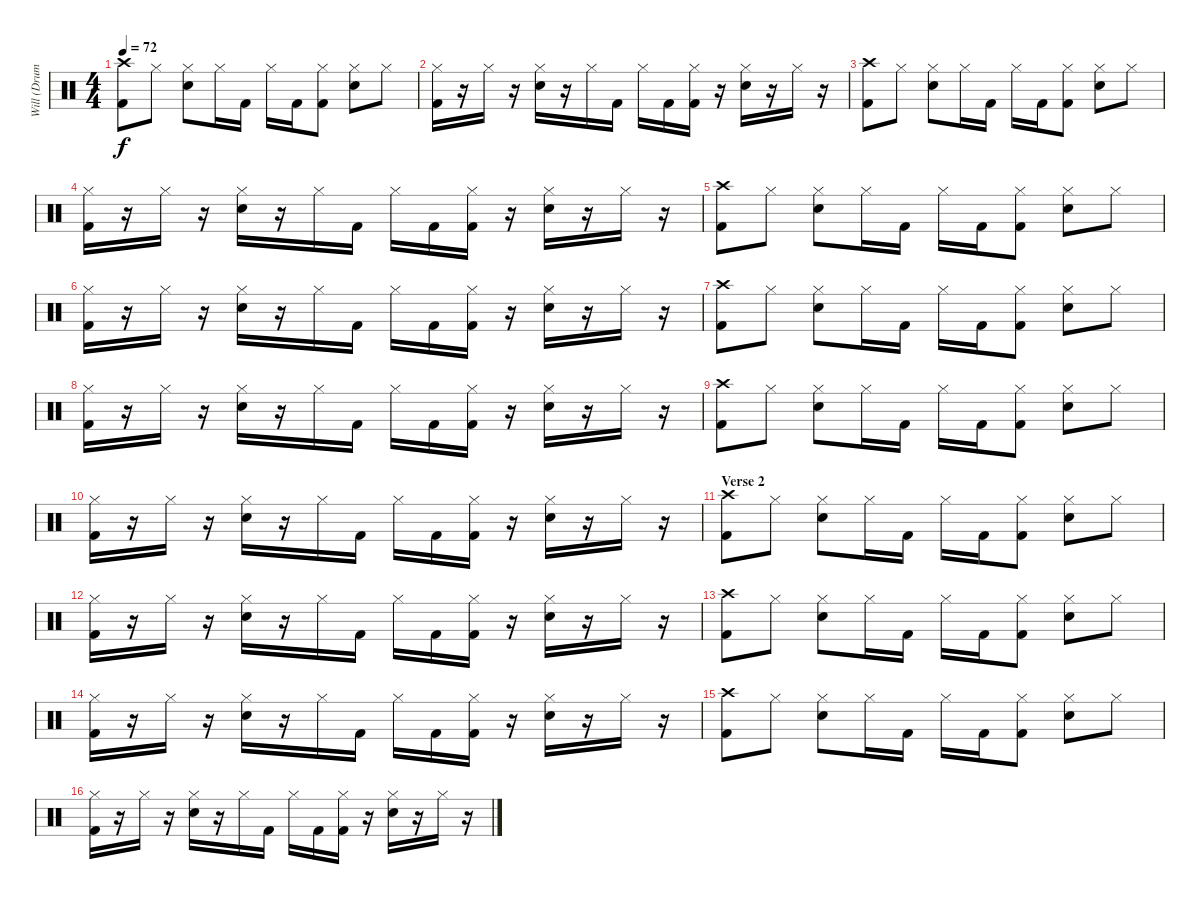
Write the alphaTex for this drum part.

\track ("Will (Drums)" "Will (Drum") {instrument percussion}
\staff {score}
\articulation defaults
\ts (4 4)
\tempo 72
\clef neutral
\ks c
("Crash high (hit)" "Kick (hit) 2").8{dy f} "Hi-Hat (closed)".8 ("Hi-Hat (closed)" "Snare (hit) 2").8 "Hi-Hat (closed)".16 "Kick (hit) 2".16 "Hi-Hat (closed)".16 "Kick (hit) 2".16 ("Hi-Hat (closed)" "Kick (hit) 2").8 ("Hi-Hat (closed)" "Snare (hit) 2").8 "Hi-Hat (closed)".8 |
("Hi-Hat (closed)" "Kick (hit) 2").16 r.16 "Hi-Hat (closed)".16 r.16 ("Hi-Hat (closed)" "Snare (hit) 2").16 r.16 "Hi-Hat (closed)".16 "Kick (hit) 2".16 "Hi-Hat (closed)".16 "Kick (hit) 2".16 ("Hi-Hat (closed)" "Kick (hit) 2").16 r.16 ("Hi-Hat (closed)" "Snare (hit) 2").16 r.16 "Hi-Hat (closed)".16 r.16 |
("Crash high (hit)" "Kick (hit) 2").8 "Hi-Hat (closed)".8 ("Hi-Hat (closed)" "Snare (hit) 2").8 "Hi-Hat (closed)".16 "Kick (hit) 2".16 "Hi-Hat (closed)".16 "Kick (hit) 2".16 ("Hi-Hat (closed)" "Kick (hit) 2").8 ("Hi-Hat (closed)" "Snare (hit) 2").8 "Hi-Hat (closed)".8 |
("Hi-Hat (closed)" "Kick (hit) 2").16 r.16 "Hi-Hat (closed)".16 r.16 ("Hi-Hat (closed)" "Snare (hit) 2").16 r.16 "Hi-Hat (closed)".16 "Kick (hit) 2".16 "Hi-Hat (closed)".16 "Kick (hit) 2".16 ("Hi-Hat (closed)" "Kick (hit) 2").16 r.16 ("Hi-Hat (closed)" "Snare (hit) 2").16 r.16 "Hi-Hat (closed)".16 r.16 |
("Crash high (hit)" "Kick (hit) 2").8 "Hi-Hat (closed)".8 ("Hi-Hat (closed)" "Snare (hit) 2").8 "Hi-Hat (closed)".16 "Kick (hit) 2".16 "Hi-Hat (closed)".16 "Kick (hit) 2".16 ("Hi-Hat (closed)" "Kick (hit) 2").8 ("Hi-Hat (closed)" "Snare (hit) 2").8 "Hi-Hat (closed)".8 |
("Hi-Hat (closed)" "Kick (hit) 2").16 r.16 "Hi-Hat (closed)".16 r.16 ("Hi-Hat (closed)" "Snare (hit) 2").16 r.16 "Hi-Hat (closed)".16 "Kick (hit) 2".16 "Hi-Hat (closed)".16 "Kick (hit) 2".16 ("Hi-Hat (closed)" "Kick (hit) 2").16 r.16 ("Hi-Hat (closed)" "Snare (hit) 2").16 r.16 "Hi-Hat (closed)".16 r.16 |
("Crash high (hit)" "Kick (hit) 2").8 "Hi-Hat (closed)".8 ("Hi-Hat (closed)" "Snare (hit) 2").8 "Hi-Hat (closed)".16 "Kick (hit) 2".16 "Hi-Hat (closed)".16 "Kick (hit) 2".16 ("Hi-Hat (closed)" "Kick (hit) 2").8 ("Hi-Hat (closed)" "Snare (hit) 2").8 "Hi-Hat (closed)".8 |
("Hi-Hat (closed)" "Kick (hit) 2").16 r.16 "Hi-Hat (closed)".16 r.16 ("Hi-Hat (closed)" "Snare (hit) 2").16 r.16 "Hi-Hat (closed)".16 "Kick (hit) 2".16 "Hi-Hat (closed)".16 "Kick (hit) 2".16 ("Hi-Hat (closed)" "Kick (hit) 2").16 r.16 ("Hi-Hat (closed)" "Snare (hit) 2").16 r.16 "Hi-Hat (closed)".16 r.16 |
("Crash high (hit)" "Kick (hit) 2").8 "Hi-Hat (closed)".8 ("Hi-Hat (closed)" "Snare (hit) 2").8 "Hi-Hat (closed)".16 "Kick (hit) 2".16 "Hi-Hat (closed)".16 "Kick (hit) 2".16 ("Hi-Hat (closed)" "Kick (hit) 2").8 ("Hi-Hat (closed)" "Snare (hit) 2").8 "Hi-Hat (closed)".8 |
("Hi-Hat (closed)" "Kick (hit) 2").16 r.16 "Hi-Hat (closed)".16 r.16 ("Hi-Hat (closed)" "Snare (hit) 2").16 r.16 "Hi-Hat (closed)".16 "Kick (hit) 2".16 "Hi-Hat (closed)".16 "Kick (hit) 2".16 ("Hi-Hat (closed)" "Kick (hit) 2").16 r.16 ("Hi-Hat (closed)" "Snare (hit) 2").16 r.16 "Hi-Hat (closed)".16 r.16 |
\section ("" "Verse 2")
("Crash high (hit)" "Kick (hit) 2").8 "Hi-Hat (closed)".8 ("Hi-Hat (closed)" "Snare (hit) 2").8 "Hi-Hat (closed)".16 "Kick (hit) 2".16 "Hi-Hat (closed)".16 "Kick (hit) 2".16 ("Hi-Hat (closed)" "Kick (hit) 2").8 ("Hi-Hat (closed)" "Snare (hit) 2").8 "Hi-Hat (closed)".8 |
("Hi-Hat (closed)" "Kick (hit) 2").16 r.16 "Hi-Hat (closed)".16 r.16 ("Hi-Hat (closed)" "Snare (hit) 2").16 r.16 "Hi-Hat (closed)".16 "Kick (hit) 2".16 "Hi-Hat (closed)".16 "Kick (hit) 2".16 ("Hi-Hat (closed)" "Kick (hit) 2").16 r.16 ("Hi-Hat (closed)" "Snare (hit) 2").16 r.16 "Hi-Hat (closed)".16 r.16 |
("Crash high (hit)" "Kick (hit) 2").8 "Hi-Hat (closed)".8 ("Hi-Hat (closed)" "Snare (hit) 2").8 "Hi-Hat (closed)".16 "Kick (hit) 2".16 "Hi-Hat (closed)".16 "Kick (hit) 2".16 ("Hi-Hat (closed)" "Kick (hit) 2").8 ("Hi-Hat (closed)" "Snare (hit) 2").8 "Hi-Hat (closed)".8 |
("Hi-Hat (closed)" "Kick (hit) 2").16 r.16 "Hi-Hat (closed)".16 r.16 ("Hi-Hat (closed)" "Snare (hit) 2").16 r.16 "Hi-Hat (closed)".16 "Kick (hit) 2".16 "Hi-Hat (closed)".16 "Kick (hit) 2".16 ("Hi-Hat (closed)" "Kick (hit) 2").16 r.16 ("Hi-Hat (closed)" "Snare (hit) 2").16 r.16 "Hi-Hat (closed)".16 r.16 |
("Crash high (hit)" "Kick (hit) 2").8 "Hi-Hat (closed)".8 ("Hi-Hat (closed)" "Snare (hit) 2").8 "Hi-Hat (closed)".16 "Kick (hit) 2".16 "Hi-Hat (closed)".16 "Kick (hit) 2".16 ("Hi-Hat (closed)" "Kick (hit) 2").8 ("Hi-Hat (closed)" "Snare (hit) 2").8 "Hi-Hat (closed)".8 |
("Hi-Hat (closed)" "Kick (hit) 2").16 r.16 "Hi-Hat (closed)".16 r.16 ("Hi-Hat (closed)" "Snare (hit) 2").16 r.16 "Hi-Hat (closed)".16 "Kick (hit) 2".16 "Hi-Hat (closed)".16 "Kick (hit) 2".16 ("Hi-Hat (closed)" "Kick (hit) 2").16 r.16 ("Hi-Hat (closed)" "Snare (hit) 2").16 r.16 "Hi-Hat (closed)".16 r.16
